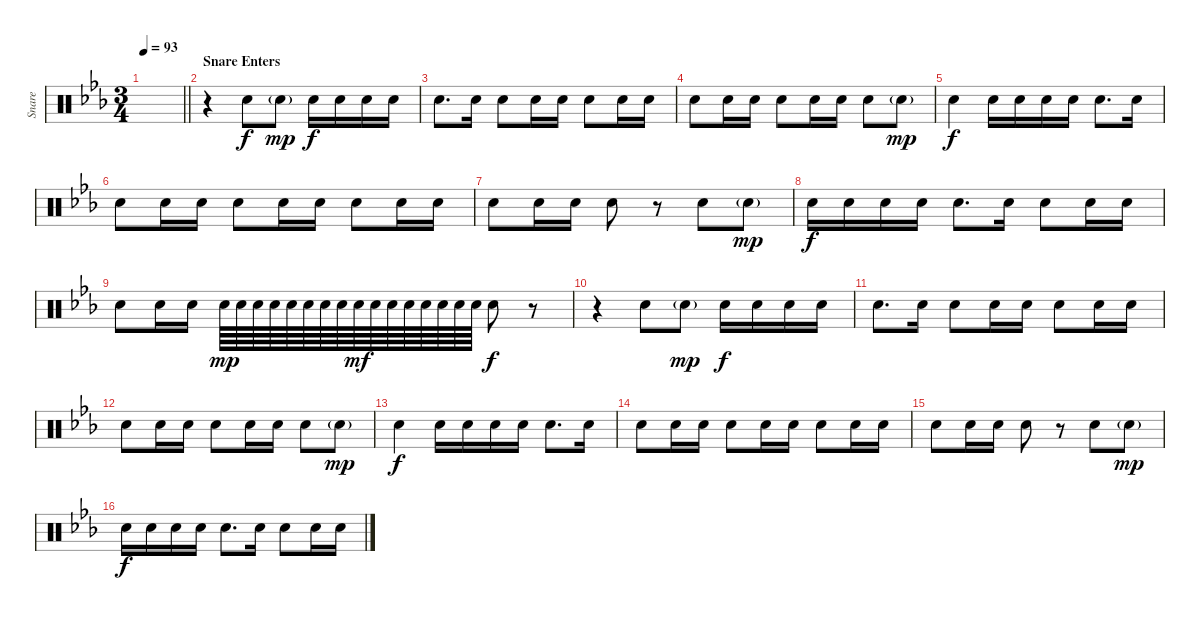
\track ("Snare" "Snare") {instrument percussion}
\staff {score}
\articulation defaults
\ts (3 4)
\tempo 93
\clef neutral
\barLineRight lightlight
\ks cminor
|
\section ("" "Snare Enters")
r.4 "Electric Snare (hit)".8 "Electric Snare (hit)"{g}.8{dy mp} "Electric Snare (hit)".16{dy f} "Electric Snare (hit)".16 "Electric Snare (hit)".16 "Electric Snare (hit)".16 |
"Electric Snare (hit)".8{d} "Electric Snare (hit)".16 "Electric Snare (hit)".8 "Electric Snare (hit)".16 "Electric Snare (hit)".16 "Electric Snare (hit)".8 "Electric Snare (hit)".16 "Electric Snare (hit)".16 |
"Electric Snare (hit)".8 "Electric Snare (hit)".16 "Electric Snare (hit)".16 "Electric Snare (hit)".8 "Electric Snare (hit)".16 "Electric Snare (hit)".16 "Electric Snare (hit)".8 "Electric Snare (hit)"{g}.8{dy mp} |
"Electric Snare (hit)".4{dy f} "Electric Snare (hit)".16 "Electric Snare (hit)".16 "Electric Snare (hit)".16 "Electric Snare (hit)".16 "Electric Snare (hit)".8{d} "Electric Snare (hit)".16 |
"Electric Snare (hit)".8 "Electric Snare (hit)".16 "Electric Snare (hit)".16 "Electric Snare (hit)".8 "Electric Snare (hit)".16 "Electric Snare (hit)".16 "Electric Snare (hit)".8 "Electric Snare (hit)".16 "Electric Snare (hit)".16 |
"Electric Snare (hit)".8 "Electric Snare (hit)".16 "Electric Snare (hit)".16 "Electric Snare (hit)".8 r.8 "Electric Snare (hit)".8 "Electric Snare (hit)"{g}.8{dy mp} |
"Electric Snare (hit)".16{dy f} "Electric Snare (hit)".16 "Electric Snare (hit)".16 "Electric Snare (hit)".16 "Electric Snare (hit)".8{d} "Electric Snare (hit)".16 "Electric Snare (hit)".8 "Electric Snare (hit)".16 "Electric Snare (hit)".16 |
"Electric Snare (hit)".8 "Electric Snare (hit)".16 "Electric Snare (hit)".16 "Electric Snare (hit)".64{dy mp} "Electric Snare (hit)".64 "Electric Snare (hit)".64 "Electric Snare (hit)".64 "Electric Snare (hit)".64 "Electric Snare (hit)".64 "Electric Snare (hit)".64 "Electric Snare (hit)".64 "Electric Snare (hit)".64{dy mf} "Electric Snare (hit)".64 "Electric Snare (hit)".64 "Electric Snare (hit)".64 "Electric Snare (hit)".64 "Electric Snare (hit)".64 "Electric Snare (hit)".64 "Electric Snare (hit)".64 "Electric Snare (hit)".8{dy f} r.8 |
r.4 "Electric Snare (hit)".8 "Electric Snare (hit)"{g}.8{dy mp} "Electric Snare (hit)".16{dy f} "Electric Snare (hit)".16 "Electric Snare (hit)".16 "Electric Snare (hit)".16 |
"Electric Snare (hit)".8{d} "Electric Snare (hit)".16 "Electric Snare (hit)".8 "Electric Snare (hit)".16 "Electric Snare (hit)".16 "Electric Snare (hit)".8 "Electric Snare (hit)".16 "Electric Snare (hit)".16 |
"Electric Snare (hit)".8 "Electric Snare (hit)".16 "Electric Snare (hit)".16 "Electric Snare (hit)".8 "Electric Snare (hit)".16 "Electric Snare (hit)".16 "Electric Snare (hit)".8 "Electric Snare (hit)"{g}.8{dy mp} |
"Electric Snare (hit)".4{dy f} "Electric Snare (hit)".16 "Electric Snare (hit)".16 "Electric Snare (hit)".16 "Electric Snare (hit)".16 "Electric Snare (hit)".8{d} "Electric Snare (hit)".16 |
"Electric Snare (hit)".8 "Electric Snare (hit)".16 "Electric Snare (hit)".16 "Electric Snare (hit)".8 "Electric Snare (hit)".16 "Electric Snare (hit)".16 "Electric Snare (hit)".8 "Electric Snare (hit)".16 "Electric Snare (hit)".16 |
"Electric Snare (hit)".8 "Electric Snare (hit)".16 "Electric Snare (hit)".16 "Electric Snare (hit)".8 r.8 "Electric Snare (hit)".8 "Electric Snare (hit)"{g}.8{dy mp} |
"Electric Snare (hit)".16{dy f} "Electric Snare (hit)".16 "Electric Snare (hit)".16 "Electric Snare (hit)".16 "Electric Snare (hit)".8{d} "Electric Snare (hit)".16 "Electric Snare (hit)".8 "Electric Snare (hit)".16 "Electric Snare (hit)".16
